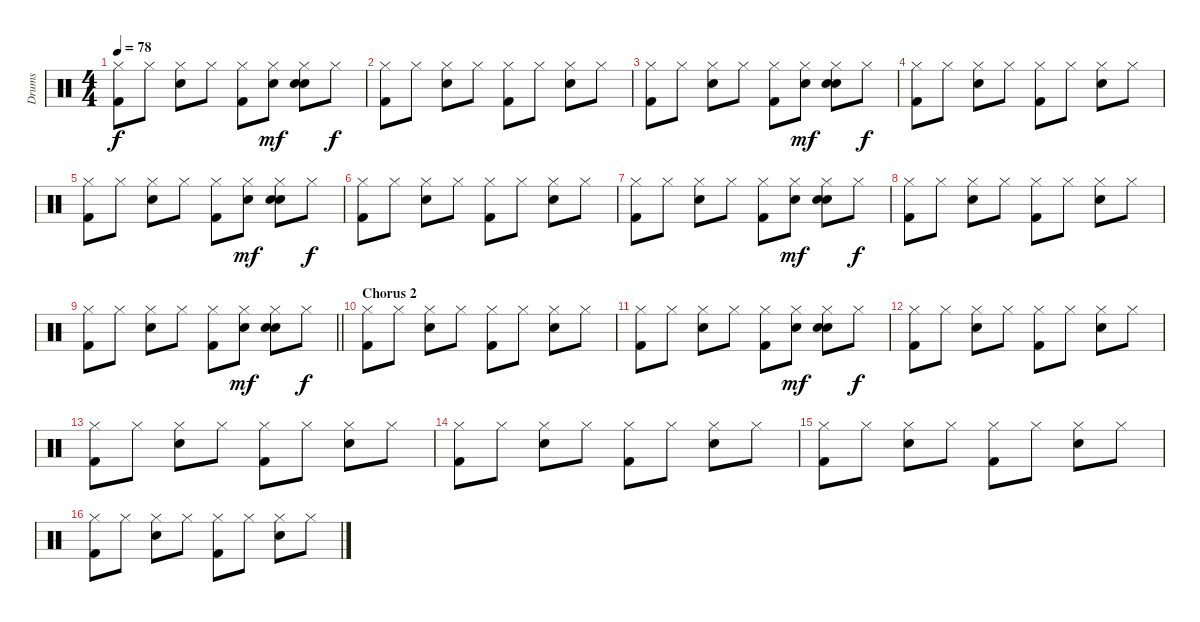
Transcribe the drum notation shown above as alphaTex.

\track ("Drums" "Drums") {instrument percussion}
\staff {score}
\articulation defaults
\ts (4 4)
\tempo 78
\clef neutral
\ks c
("Hi-Hat (closed)" "Kick (hit) 2").8{dy f} "Hi-Hat (closed)".8 ("Hi-Hat (closed)" "Snare (hit) 2").8 "Hi-Hat (closed)".8 ("Hi-Hat (closed)" "Kick (hit) 2").8 ("Hi-Hat (closed)" "Hand Clap (hit)").8{dy mf} ("Hi-Hat (closed)" "Snare (hit) 2" "Hand Clap (hit)").8 "Hi-Hat (closed)".8{dy f} |
("Hi-Hat (closed)" "Kick (hit) 2").8 "Hi-Hat (closed)".8 ("Hi-Hat (closed)" "Snare (hit) 2").8 "Hi-Hat (closed)".8 ("Hi-Hat (closed)" "Kick (hit) 2").8 "Hi-Hat (closed)".8 ("Hi-Hat (closed)" "Snare (hit) 2").8 "Hi-Hat (closed)".8 |
("Hi-Hat (closed)" "Kick (hit) 2").8 "Hi-Hat (closed)".8 ("Hi-Hat (closed)" "Snare (hit) 2").8 "Hi-Hat (closed)".8 ("Hi-Hat (closed)" "Kick (hit) 2").8 ("Hi-Hat (closed)" "Hand Clap (hit)").8{dy mf} ("Hi-Hat (closed)" "Snare (hit) 2" "Hand Clap (hit)").8 "Hi-Hat (closed)".8{dy f} |
("Hi-Hat (closed)" "Kick (hit) 2").8 "Hi-Hat (closed)".8 ("Hi-Hat (closed)" "Snare (hit) 2").8 "Hi-Hat (closed)".8 ("Hi-Hat (closed)" "Kick (hit) 2").8 "Hi-Hat (closed)".8 ("Hi-Hat (closed)" "Snare (hit) 2").8 "Hi-Hat (closed)".8 |
("Hi-Hat (closed)" "Kick (hit) 2").8 "Hi-Hat (closed)".8 ("Hi-Hat (closed)" "Snare (hit) 2").8 "Hi-Hat (closed)".8 ("Hi-Hat (closed)" "Kick (hit) 2").8 ("Hi-Hat (closed)" "Hand Clap (hit)").8{dy mf} ("Hi-Hat (closed)" "Snare (hit) 2" "Hand Clap (hit)").8 "Hi-Hat (closed)".8{dy f} |
("Hi-Hat (closed)" "Kick (hit) 2").8 "Hi-Hat (closed)".8 ("Hi-Hat (closed)" "Snare (hit) 2").8 "Hi-Hat (closed)".8 ("Hi-Hat (closed)" "Kick (hit) 2").8 "Hi-Hat (closed)".8 ("Hi-Hat (closed)" "Snare (hit) 2").8 "Hi-Hat (closed)".8 |
("Hi-Hat (closed)" "Kick (hit) 2").8 "Hi-Hat (closed)".8 ("Hi-Hat (closed)" "Snare (hit) 2").8 "Hi-Hat (closed)".8 ("Hi-Hat (closed)" "Kick (hit) 2").8 ("Hi-Hat (closed)" "Hand Clap (hit)").8{dy mf} ("Hi-Hat (closed)" "Snare (hit) 2" "Hand Clap (hit)").8 "Hi-Hat (closed)".8{dy f} |
("Hi-Hat (closed)" "Kick (hit) 2").8 "Hi-Hat (closed)".8 ("Hi-Hat (closed)" "Snare (hit) 2").8 "Hi-Hat (closed)".8 ("Hi-Hat (closed)" "Kick (hit) 2").8 "Hi-Hat (closed)".8 ("Hi-Hat (closed)" "Snare (hit) 2").8 "Hi-Hat (closed)".8 |
\barLineRight lightlight
("Hi-Hat (closed)" "Kick (hit) 2").8 "Hi-Hat (closed)".8 ("Hi-Hat (closed)" "Snare (hit) 2").8 "Hi-Hat (closed)".8 ("Hi-Hat (closed)" "Kick (hit) 2").8 ("Hi-Hat (closed)" "Hand Clap (hit)").8{dy mf} ("Hi-Hat (closed)" "Snare (hit) 2" "Hand Clap (hit)").8 "Hi-Hat (closed)".8{dy f} |
\section ("" "Chorus 2")
("Hi-Hat (closed)" "Kick (hit) 2").8 "Hi-Hat (closed)".8 ("Hi-Hat (closed)" "Snare (hit) 2").8 "Hi-Hat (closed)".8 ("Hi-Hat (closed)" "Kick (hit) 2").8 "Hi-Hat (closed)".8 ("Hi-Hat (closed)" "Snare (hit) 2").8 "Hi-Hat (closed)".8 |
("Hi-Hat (closed)" "Kick (hit) 2").8 "Hi-Hat (closed)".8 ("Hi-Hat (closed)" "Snare (hit) 2").8 "Hi-Hat (closed)".8 ("Hi-Hat (closed)" "Kick (hit) 2").8 ("Hi-Hat (closed)" "Hand Clap (hit)").8{dy mf} ("Hi-Hat (closed)" "Snare (hit) 2" "Hand Clap (hit)").8 "Hi-Hat (closed)".8{dy f} |
("Hi-Hat (closed)" "Kick (hit) 2").8 "Hi-Hat (closed)".8 ("Hi-Hat (closed)" "Snare (hit) 2").8 "Hi-Hat (closed)".8 ("Hi-Hat (closed)" "Kick (hit) 2").8 "Hi-Hat (closed)".8 ("Hi-Hat (closed)" "Snare (hit) 2").8 "Hi-Hat (closed)".8 |
("Hi-Hat (closed)" "Kick (hit) 2").8 "Hi-Hat (closed)".8 ("Hi-Hat (closed)" "Snare (hit) 2").8 "Hi-Hat (closed)".8 ("Hi-Hat (closed)" "Kick (hit) 2").8 "Hi-Hat (closed)".8 ("Hi-Hat (closed)" "Snare (hit) 2").8 "Hi-Hat (closed)".8 |
("Hi-Hat (closed)" "Kick (hit) 2").8 "Hi-Hat (closed)".8 ("Hi-Hat (closed)" "Snare (hit) 2").8 "Hi-Hat (closed)".8 ("Hi-Hat (closed)" "Kick (hit) 2").8 "Hi-Hat (closed)".8 ("Hi-Hat (closed)" "Snare (hit) 2").8 "Hi-Hat (closed)".8 |
("Hi-Hat (closed)" "Kick (hit) 2").8 "Hi-Hat (closed)".8 ("Hi-Hat (closed)" "Snare (hit) 2").8 "Hi-Hat (closed)".8 ("Hi-Hat (closed)" "Kick (hit) 2").8 "Hi-Hat (closed)".8 ("Hi-Hat (closed)" "Snare (hit) 2").8 "Hi-Hat (closed)".8 |
("Hi-Hat (closed)" "Kick (hit) 2").8 "Hi-Hat (closed)".8 ("Hi-Hat (closed)" "Snare (hit) 2").8 "Hi-Hat (closed)".8 ("Hi-Hat (closed)" "Kick (hit) 2").8 "Hi-Hat (closed)".8 ("Hi-Hat (closed)" "Snare (hit) 2").8 "Hi-Hat (closed)".8
